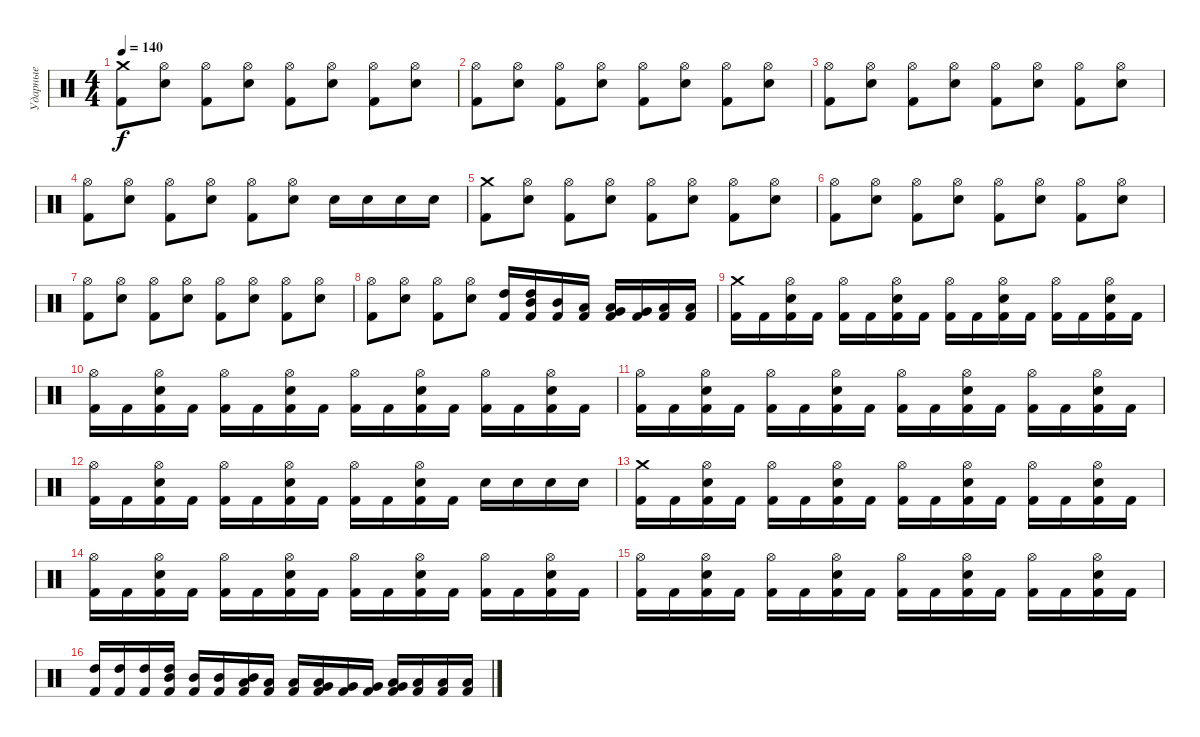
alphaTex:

\track ("Ударные" "Ударные") {instrument percussion}
\staff {score}
\articulation defaults
\ts (4 4)
\tempo 140
\clef neutral
\ks c
("Crash medium (hit)" "Kick (hit) 2").8{dy f} ("Hi-Hat (open)" "Electric Snare (hit)").8 ("Hi-Hat (open)" "Kick (hit) 2").8 ("Hi-Hat (open)" "Electric Snare (hit)").8 ("Hi-Hat (open)" "Kick (hit) 2").8 ("Hi-Hat (open)" "Electric Snare (hit)").8 ("Hi-Hat (open)" "Kick (hit) 2").8 ("Hi-Hat (open)" "Electric Snare (hit)").8 |
("Hi-Hat (open)" "Kick (hit) 2").8 ("Hi-Hat (open)" "Electric Snare (hit)").8 ("Hi-Hat (open)" "Kick (hit) 2").8 ("Hi-Hat (open)" "Electric Snare (hit)").8 ("Hi-Hat (open)" "Kick (hit) 2").8 ("Hi-Hat (open)" "Electric Snare (hit)").8 ("Hi-Hat (open)" "Kick (hit) 2").8 ("Hi-Hat (open)" "Electric Snare (hit)").8 |
("Hi-Hat (open)" "Kick (hit) 2").8 ("Hi-Hat (open)" "Electric Snare (hit)").8 ("Hi-Hat (open)" "Kick (hit) 2").8 ("Hi-Hat (open)" "Electric Snare (hit)").8 ("Hi-Hat (open)" "Kick (hit) 2").8 ("Hi-Hat (open)" "Electric Snare (hit)").8 ("Hi-Hat (open)" "Kick (hit) 2").8 ("Hi-Hat (open)" "Electric Snare (hit)").8 |
("Hi-Hat (open)" "Kick (hit) 2").8 ("Hi-Hat (open)" "Electric Snare (hit)").8 ("Hi-Hat (open)" "Kick (hit) 2").8 ("Hi-Hat (open)" "Electric Snare (hit)").8 ("Hi-Hat (open)" "Kick (hit) 2").8 ("Hi-Hat (open)" "Electric Snare (hit)").8 "Electric Snare (hit)".16 "Electric Snare (hit)".16 "Electric Snare (hit)".16 "Electric Snare (hit)".16 |
("Crash medium (hit)" "Kick (hit) 2").8 ("Hi-Hat (open)" "Electric Snare (hit)").8 ("Hi-Hat (open)" "Kick (hit) 2").8 ("Hi-Hat (open)" "Electric Snare (hit)").8 ("Hi-Hat (open)" "Kick (hit) 2").8 ("Hi-Hat (open)" "Electric Snare (hit)").8 ("Hi-Hat (open)" "Kick (hit) 2").8 ("Hi-Hat (open)" "Electric Snare (hit)").8 |
("Hi-Hat (open)" "Kick (hit) 2").8 ("Hi-Hat (open)" "Electric Snare (hit)").8 ("Hi-Hat (open)" "Kick (hit) 2").8 ("Hi-Hat (open)" "Electric Snare (hit)").8 ("Hi-Hat (open)" "Kick (hit) 2").8 ("Hi-Hat (open)" "Electric Snare (hit)").8 ("Hi-Hat (open)" "Kick (hit) 2").8 ("Hi-Hat (open)" "Electric Snare (hit)").8 |
("Hi-Hat (open)" "Kick (hit) 2").8 ("Hi-Hat (open)" "Electric Snare (hit)").8 ("Hi-Hat (open)" "Kick (hit) 2").8 ("Hi-Hat (open)" "Electric Snare (hit)").8 ("Hi-Hat (open)" "Kick (hit) 2").8 ("Hi-Hat (open)" "Electric Snare (hit)").8 ("Hi-Hat (open)" "Kick (hit) 2").8 ("Hi-Hat (open)" "Electric Snare (hit)").8 |
("Hi-Hat (open)" "Kick (hit) 2").8 ("Hi-Hat (open)" "Electric Snare (hit)").8 ("Hi-Hat (open)" "Kick (hit) 2").8 ("Hi-Hat (open)" "Electric Snare (hit)").8 ("High Tom (hit)" "Kick (hit) 2").16 ("Mid Tom (hit)" "High Tom (hit)" "Kick (hit) 2").16 ("Mid Tom (hit)" "Kick (hit) 2").16 ("Low Tom (hit)" "Kick (hit) 2").16 ("Very Low Tom (hit)" "Low Tom (hit)" "Kick (hit) 2").16 ("Very Low Tom (hit)" "Kick (hit) 2").16 ("Low Floor Tom (hit)" "Kick (hit) 2").16 ("Low Floor Tom (hit)" "Kick (hit) 2").16 |
("Crash medium (hit)" "Kick (hit) 2").16 "Kick (hit) 2".16 ("Hi-Hat (open)" "Electric Snare (hit)" "Kick (hit) 2").16 "Kick (hit) 2".16 ("Hi-Hat (open)" "Kick (hit) 2").16 "Kick (hit) 2".16 ("Hi-Hat (open)" "Electric Snare (hit)" "Kick (hit) 2").16 "Kick (hit) 2".16 ("Hi-Hat (open)" "Kick (hit) 2").16 "Kick (hit) 2".16 ("Hi-Hat (open)" "Electric Snare (hit)" "Kick (hit) 2").16 "Kick (hit) 2".16 ("Hi-Hat (open)" "Kick (hit) 2").16 "Kick (hit) 2".16 ("Hi-Hat (open)" "Electric Snare (hit)" "Kick (hit) 2").16 "Kick (hit) 2".16 |
("Hi-Hat (open)" "Kick (hit) 2").16 "Kick (hit) 2".16 ("Hi-Hat (open)" "Electric Snare (hit)" "Kick (hit) 2").16 "Kick (hit) 2".16 ("Hi-Hat (open)" "Kick (hit) 2").16 "Kick (hit) 2".16 ("Hi-Hat (open)" "Electric Snare (hit)" "Kick (hit) 2").16 "Kick (hit) 2".16 ("Hi-Hat (open)" "Kick (hit) 2").16 "Kick (hit) 2".16 ("Hi-Hat (open)" "Electric Snare (hit)" "Kick (hit) 2").16 "Kick (hit) 2".16 ("Hi-Hat (open)" "Kick (hit) 2").16 "Kick (hit) 2".16 ("Hi-Hat (open)" "Electric Snare (hit)" "Kick (hit) 2").16 "Kick (hit) 2".16 |
("Hi-Hat (open)" "Kick (hit) 2").16 "Kick (hit) 2".16 ("Hi-Hat (open)" "Electric Snare (hit)" "Kick (hit) 2").16 "Kick (hit) 2".16 ("Hi-Hat (open)" "Kick (hit) 2").16 "Kick (hit) 2".16 ("Hi-Hat (open)" "Electric Snare (hit)" "Kick (hit) 2").16 "Kick (hit) 2".16 ("Hi-Hat (open)" "Kick (hit) 2").16 "Kick (hit) 2".16 ("Hi-Hat (open)" "Electric Snare (hit)" "Kick (hit) 2").16 "Kick (hit) 2".16 ("Hi-Hat (open)" "Kick (hit) 2").16 "Kick (hit) 2".16 ("Hi-Hat (open)" "Electric Snare (hit)" "Kick (hit) 2").16 "Kick (hit) 2".16 |
("Hi-Hat (open)" "Kick (hit) 2").16 "Kick (hit) 2".16 ("Hi-Hat (open)" "Electric Snare (hit)" "Kick (hit) 2").16 "Kick (hit) 2".16 ("Hi-Hat (open)" "Kick (hit) 2").16 "Kick (hit) 2".16 ("Hi-Hat (open)" "Electric Snare (hit)" "Kick (hit) 2").16 "Kick (hit) 2".16 ("Hi-Hat (open)" "Kick (hit) 2").16 "Kick (hit) 2".16 ("Hi-Hat (open)" "Electric Snare (hit)" "Kick (hit) 2").16 "Kick (hit) 2".16 "Electric Snare (hit)".16 "Electric Snare (hit)".16 "Electric Snare (hit)".16 "Electric Snare (hit)".16 |
("Crash medium (hit)" "Kick (hit) 2").16 "Kick (hit) 2".16 ("Hi-Hat (open)" "Electric Snare (hit)" "Kick (hit) 2").16 "Kick (hit) 2".16 ("Hi-Hat (open)" "Kick (hit) 2").16 "Kick (hit) 2".16 ("Hi-Hat (open)" "Electric Snare (hit)" "Kick (hit) 2").16 "Kick (hit) 2".16 ("Hi-Hat (open)" "Kick (hit) 2").16 "Kick (hit) 2".16 ("Hi-Hat (open)" "Electric Snare (hit)" "Kick (hit) 2").16 "Kick (hit) 2".16 ("Hi-Hat (open)" "Kick (hit) 2").16 "Kick (hit) 2".16 ("Hi-Hat (open)" "Electric Snare (hit)" "Kick (hit) 2").16 "Kick (hit) 2".16 |
("Hi-Hat (open)" "Kick (hit) 2").16 "Kick (hit) 2".16 ("Hi-Hat (open)" "Electric Snare (hit)" "Kick (hit) 2").16 "Kick (hit) 2".16 ("Hi-Hat (open)" "Kick (hit) 2").16 "Kick (hit) 2".16 ("Hi-Hat (open)" "Electric Snare (hit)" "Kick (hit) 2").16 "Kick (hit) 2".16 ("Hi-Hat (open)" "Kick (hit) 2").16 "Kick (hit) 2".16 ("Hi-Hat (open)" "Electric Snare (hit)" "Kick (hit) 2").16 "Kick (hit) 2".16 ("Hi-Hat (open)" "Kick (hit) 2").16 "Kick (hit) 2".16 ("Hi-Hat (open)" "Electric Snare (hit)" "Kick (hit) 2").16 "Kick (hit) 2".16 |
("Hi-Hat (open)" "Kick (hit) 2").16 "Kick (hit) 2".16 ("Hi-Hat (open)" "Electric Snare (hit)" "Kick (hit) 2").16 "Kick (hit) 2".16 ("Hi-Hat (open)" "Kick (hit) 2").16 "Kick (hit) 2".16 ("Hi-Hat (open)" "Electric Snare (hit)" "Kick (hit) 2").16 "Kick (hit) 2".16 ("Hi-Hat (open)" "Kick (hit) 2").16 "Kick (hit) 2".16 ("Hi-Hat (open)" "Electric Snare (hit)" "Kick (hit) 2").16 "Kick (hit) 2".16 ("Hi-Hat (open)" "Kick (hit) 2").16 "Kick (hit) 2".16 ("Hi-Hat (open)" "Electric Snare (hit)" "Kick (hit) 2").16 "Kick (hit) 2".16 |
("High Tom (hit)" "Kick (hit) 2").16 ("High Tom (hit)" "Kick (hit) 2").16 ("High Tom (hit)" "Kick (hit) 2").16 ("Mid Tom (hit)" "High Tom (hit)" "Kick (hit) 2").16 ("Mid Tom (hit)" "Kick (hit) 2").16 ("Mid Tom (hit)" "Kick (hit) 2").16 ("Low Tom (hit)" "Mid Tom (hit)" "Kick (hit) 2").16 ("Low Tom (hit)" "Kick (hit) 2").16 ("Low Tom (hit)" "Kick (hit) 2").16 ("Very Low Tom (hit)" "Low Tom (hit)" "Kick (hit) 2").16 ("Very Low Tom (hit)" "Kick (hit) 2").16 ("Very Low Tom (hit)" "Kick (hit) 2").16 ("Low Floor Tom (hit)" "Very Low Tom (hit)" "Kick (hit) 2").16 ("Low Floor Tom (hit)" "Kick (hit) 2").16 ("Low Floor Tom (hit)" "Kick (hit) 2").16 ("Low Floor Tom (hit)" "Kick (hit) 2").16
